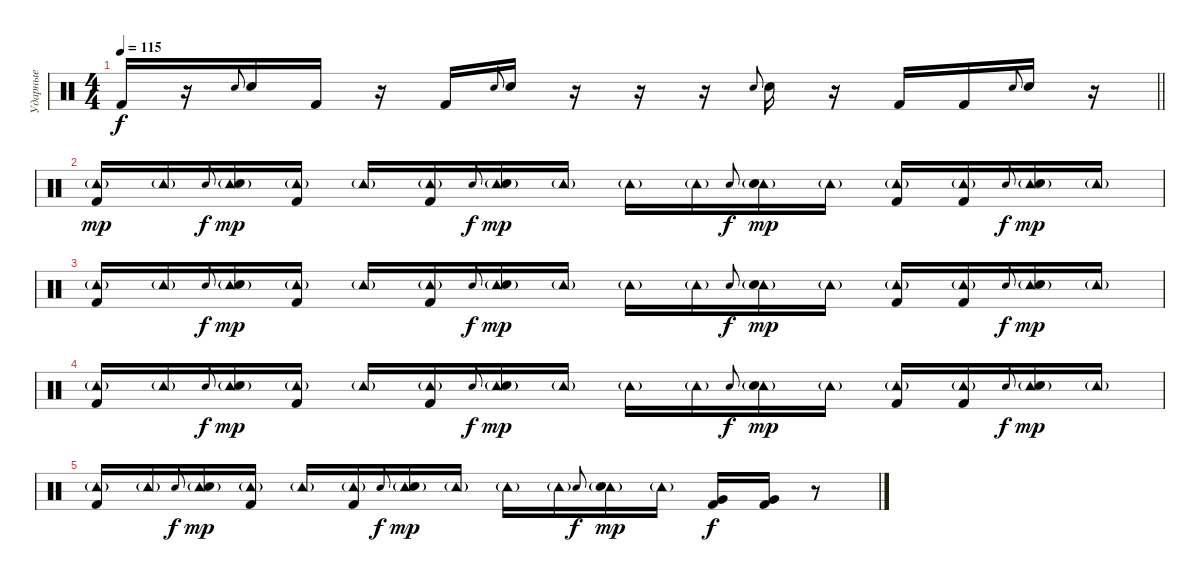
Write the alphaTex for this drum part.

\track ("Ударные" "Ударные") {instrument percussion}
\staff {score}
\articulation defaults
\ts (4 4)
\tempo 115
\clef neutral
\barLineRight lightlight
\ks c "Kick (hit) 2".16{dy f}
r.16 "Snare (hit) 2".8{gr onbeat} "Snare (hit) 2".16 "Kick (hit) 2".16 r.16 "Kick (hit) 2".16 "Snare (hit) 2".8{gr onbeat} "Snare (hit) 2".16 r.16 r.16 r.16 "Snare (hit) 2".8{gr onbeat} "Snare (hit) 2".16 r.16 "Kick (hit) 2".16 "Kick (hit) 2".16 "Snare (hit) 2".8{gr onbeat} "Snare (hit) 2".16 r.16 |
("Tambourine (hit)"{g} "Kick (hit) 2").16{dy mp} "Tambourine (hit)"{g}.16 "Snare (hit) 2".8{gr onbeat dy f} ("Tambourine (hit)"{g} "Snare (hit) 2").16{dy mp} ("Tambourine (hit)"{g} "Kick (hit) 2").16 "Tambourine (hit)"{g}.16 ("Tambourine (hit)"{g} "Kick (hit) 2").16 "Snare (hit) 2".8{gr onbeat dy f} ("Tambourine (hit)"{g} "Snare (hit) 2").16{dy mp} "Tambourine (hit)"{g}.16 "Tambourine (hit)"{g}.16 "Tambourine (hit)"{g}.16 "Snare (hit) 2".8{gr onbeat dy f} ("Tambourine (hit)"{g} "Snare (hit) 2").16{dy mp} "Tambourine (hit)"{g}.16 ("Tambourine (hit)"{g} "Kick (hit) 2").16 ("Tambourine (hit)"{g} "Kick (hit) 2").16 "Snare (hit) 2".8{gr onbeat dy f} ("Tambourine (hit)"{g} "Snare (hit) 2").16{dy mp} "Tambourine (hit)"{g}.16 |
("Tambourine (hit)"{g} "Kick (hit) 2").16 "Tambourine (hit)"{g}.16 "Snare (hit) 2".8{gr onbeat dy f} ("Tambourine (hit)"{g} "Snare (hit) 2").16{dy mp} ("Tambourine (hit)"{g} "Kick (hit) 2").16 "Tambourine (hit)"{g}.16 ("Tambourine (hit)"{g} "Kick (hit) 2").16 "Snare (hit) 2".8{gr onbeat dy f} ("Tambourine (hit)"{g} "Snare (hit) 2").16{dy mp} "Tambourine (hit)"{g}.16 "Tambourine (hit)"{g}.16 "Tambourine (hit)"{g}.16 "Snare (hit) 2".8{gr onbeat dy f} ("Tambourine (hit)"{g} "Snare (hit) 2").16{dy mp} "Tambourine (hit)"{g}.16 ("Tambourine (hit)"{g} "Kick (hit) 2").16 ("Tambourine (hit)"{g} "Kick (hit) 2").16 "Snare (hit) 2".8{gr onbeat dy f} ("Tambourine (hit)"{g} "Snare (hit) 2").16{dy mp} "Tambourine (hit)"{g}.16 |
("Tambourine (hit)"{g} "Kick (hit) 2").16 "Tambourine (hit)"{g}.16 "Snare (hit) 2".8{gr onbeat dy f} ("Tambourine (hit)"{g} "Snare (hit) 2").16{dy mp} ("Tambourine (hit)"{g} "Kick (hit) 2").16 "Tambourine (hit)"{g}.16 ("Tambourine (hit)"{g} "Kick (hit) 2").16 "Snare (hit) 2".8{gr onbeat dy f} ("Tambourine (hit)"{g} "Snare (hit) 2").16{dy mp} "Tambourine (hit)"{g}.16 "Tambourine (hit)"{g}.16 "Tambourine (hit)"{g}.16 "Snare (hit) 2".8{gr onbeat dy f} ("Tambourine (hit)"{g} "Snare (hit) 2").16{dy mp} "Tambourine (hit)"{g}.16 ("Tambourine (hit)"{g} "Kick (hit) 2").16 ("Tambourine (hit)"{g} "Kick (hit) 2").16 "Snare (hit) 2".8{gr onbeat dy f} ("Tambourine (hit)"{g} "Snare (hit) 2").16{dy mp} "Tambourine (hit)"{g}.16 |
("Tambourine (hit)"{g} "Kick (hit) 2").16 "Tambourine (hit)"{g}.16 "Snare (hit) 2".8{gr onbeat dy f} ("Tambourine (hit)"{g} "Snare (hit) 2").16{dy mp} ("Tambourine (hit)"{g} "Kick (hit) 2").16 "Tambourine (hit)"{g}.16 ("Tambourine (hit)"{g} "Kick (hit) 2").16 "Snare (hit) 2".8{gr onbeat dy f} ("Tambourine (hit)"{g} "Snare (hit) 2").16{dy mp} "Tambourine (hit)"{g}.16 "Tambourine (hit)"{g}.16 "Tambourine (hit)"{g}.16 "Snare (hit) 2".8{gr onbeat dy f} ("Tambourine (hit)"{g} "Snare (hit) 2").16{dy mp} "Tambourine (hit)"{g}.16 ("Very Low Tom (hit)" "Kick (hit) 2").16{dy f} ("Very Low Tom (hit)" "Kick (hit) 2").16 r.8
